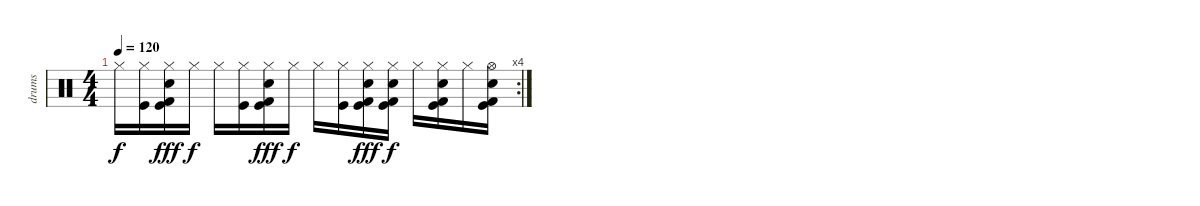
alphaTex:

\track ("drums" "drums") {instrument percussion}
\staff {score}
\articulation defaults
\rc 4
\ts (4 4)
\tempo 120
\clef neutral
\ks c "Hi-Hat (closed)".16{dy f}
("Hi-Hat (closed)" "Kick (hit)").16 ("Hi-Hat (closed)" "Kick (hit) 2" "Electric Snare (hit)" "Kick (hit)").16{dy fff} "Hi-Hat (closed)".16{dy f} "Hi-Hat (closed)".16 ("Hi-Hat (closed)" "Kick (hit)").16 ("Hi-Hat (closed)" "Kick (hit) 2" "Electric Snare (hit)" "Kick (hit)").16{dy fff} "Hi-Hat (closed)".16{dy f} "Hi-Hat (closed)".16 ("Hi-Hat (closed)" "Kick (hit)").16 ("Hi-Hat (closed)" "Kick (hit) 2" "Electric Snare (hit)" "Kick (hit)").16{dy fff} ("Hi-Hat (closed)" "Kick (hit) 2" "Electric Snare (hit)" "Kick (hit)").16{dy f} "Hi-Hat (closed)".16 ("Hi-Hat (closed)" "Kick (hit) 2" "Electric Snare (hit)" "Kick (hit)").16 "Hi-Hat (closed)".16 ("Hi-Hat (open)" "Kick (hit) 2" "Electric Snare (hit)" "Kick (hit)").16
